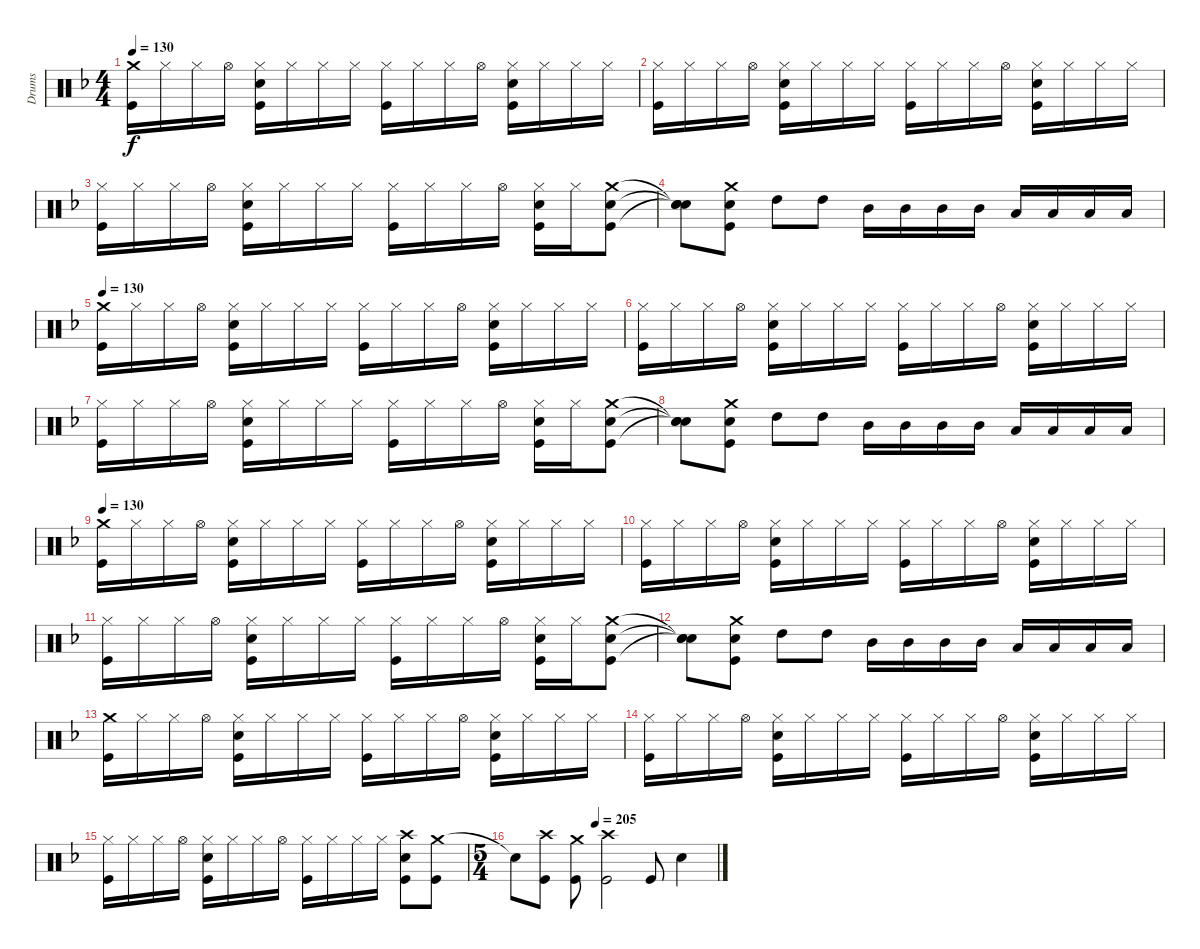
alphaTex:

\track ("Drums" "Drums") {instrument percussion}
\staff {score}
\articulation defaults
\ts (4 4)
\tempo 130
\clef neutral
\ks f
("Crash medium (hit)" "Kick (hit)").16{dy f} "Hi-Hat (closed)".16 "Hi-Hat (closed)".16 "Hi-Hat (open)".16 ("Hi-Hat (closed)" "Kick (hit)" "Electric Snare (hit)").16 "Hi-Hat (closed)".16 "Hi-Hat (closed)".16 "Hi-Hat (closed)".16 ("Hi-Hat (closed)" "Kick (hit)").16 "Hi-Hat (closed)".16 "Hi-Hat (closed)".16 "Hi-Hat (open)".16 ("Hi-Hat (closed)" "Kick (hit)" "Electric Snare (hit)").16 "Hi-Hat (closed)".16 "Hi-Hat (closed)".16 "Hi-Hat (closed)".16 |
("Hi-Hat (closed)" "Kick (hit)").16 "Hi-Hat (closed)".16 "Hi-Hat (closed)".16 "Hi-Hat (open)".16 ("Hi-Hat (closed)" "Kick (hit)" "Electric Snare (hit)").16 "Hi-Hat (closed)".16 "Hi-Hat (closed)".16 "Hi-Hat (closed)".16 ("Hi-Hat (closed)" "Kick (hit)").16 "Hi-Hat (closed)".16 "Hi-Hat (closed)".16 "Hi-Hat (open)".16 ("Hi-Hat (closed)" "Kick (hit)" "Electric Snare (hit)").16 "Hi-Hat (closed)".16 "Hi-Hat (closed)".16 "Hi-Hat (closed)".16 |
("Hi-Hat (closed)" "Kick (hit)").16 "Hi-Hat (closed)".16 "Hi-Hat (closed)".16 "Hi-Hat (open)".16 ("Hi-Hat (closed)" "Kick (hit)" "Electric Snare (hit)").16 "Hi-Hat (closed)".16 "Hi-Hat (closed)".16 "Hi-Hat (closed)".16 ("Hi-Hat (closed)" "Kick (hit)").16 "Hi-Hat (closed)".16 "Hi-Hat (closed)".16 "Hi-Hat (open)".16 ("Hi-Hat (closed)" "Kick (hit)" "Electric Snare (hit)").16 "Hi-Hat (closed)".16 ("Crash medium (hit)" "Kick (hit)" "Electric Snare (hit)").8 |
("Snare (hit)"{t} "Snare (hit)"{t} "Snare (hit)"{t}).8 ("Crash medium (hit)" "Kick (hit)" "Electric Snare (hit)").8 "High Tom (hit)".8 "High Tom (hit)".8 "Mid Tom (hit)".16 "Mid Tom (hit)".16 "Mid Tom (hit)".16 "Mid Tom (hit)".16 "Low Tom (hit)".16 "Low Tom (hit)".16 "Low Tom (hit)".16 "Low Tom (hit)".16 |
\tempo 130
("Crash medium (hit)" "Kick (hit)").16 "Hi-Hat (closed)".16 "Hi-Hat (closed)".16 "Hi-Hat (open)".16 ("Hi-Hat (closed)" "Kick (hit)" "Electric Snare (hit)").16 "Hi-Hat (closed)".16 "Hi-Hat (closed)".16 "Hi-Hat (closed)".16 ("Hi-Hat (closed)" "Kick (hit)").16 "Hi-Hat (closed)".16 "Hi-Hat (closed)".16 "Hi-Hat (open)".16 ("Hi-Hat (closed)" "Kick (hit)" "Electric Snare (hit)").16 "Hi-Hat (closed)".16 "Hi-Hat (closed)".16 "Hi-Hat (closed)".16 |
("Hi-Hat (closed)" "Kick (hit)").16 "Hi-Hat (closed)".16 "Hi-Hat (closed)".16 "Hi-Hat (open)".16 ("Hi-Hat (closed)" "Kick (hit)" "Electric Snare (hit)").16 "Hi-Hat (closed)".16 "Hi-Hat (closed)".16 "Hi-Hat (closed)".16 ("Hi-Hat (closed)" "Kick (hit)").16 "Hi-Hat (closed)".16 "Hi-Hat (closed)".16 "Hi-Hat (open)".16 ("Hi-Hat (closed)" "Kick (hit)" "Electric Snare (hit)").16 "Hi-Hat (closed)".16 "Hi-Hat (closed)".16 "Hi-Hat (closed)".16 |
("Hi-Hat (closed)" "Kick (hit)").16 "Hi-Hat (closed)".16 "Hi-Hat (closed)".16 "Hi-Hat (open)".16 ("Hi-Hat (closed)" "Kick (hit)" "Electric Snare (hit)").16 "Hi-Hat (closed)".16 "Hi-Hat (closed)".16 "Hi-Hat (closed)".16 ("Hi-Hat (closed)" "Kick (hit)").16 "Hi-Hat (closed)".16 "Hi-Hat (closed)".16 "Hi-Hat (open)".16 ("Hi-Hat (closed)" "Kick (hit)" "Electric Snare (hit)").16 "Hi-Hat (closed)".16 ("Crash medium (hit)" "Kick (hit)" "Electric Snare (hit)").8 |
("Snare (hit)"{t} "Snare (hit)"{t} "Snare (hit)"{t}).8 ("Crash medium (hit)" "Kick (hit)" "Electric Snare (hit)").8 "High Tom (hit)".8 "High Tom (hit)".8 "Mid Tom (hit)".16 "Mid Tom (hit)".16 "Mid Tom (hit)".16 "Mid Tom (hit)".16 "Low Tom (hit)".16 "Low Tom (hit)".16 "Low Tom (hit)".16 "Low Tom (hit)".16 |
\tempo 130
("Crash medium (hit)" "Kick (hit)").16 "Hi-Hat (closed)".16 "Hi-Hat (closed)".16 "Hi-Hat (open)".16 ("Hi-Hat (closed)" "Kick (hit)" "Electric Snare (hit)").16 "Hi-Hat (closed)".16 "Hi-Hat (closed)".16 "Hi-Hat (closed)".16 ("Hi-Hat (closed)" "Kick (hit)").16 "Hi-Hat (closed)".16 "Hi-Hat (closed)".16 "Hi-Hat (open)".16 ("Hi-Hat (closed)" "Kick (hit)" "Electric Snare (hit)").16 "Hi-Hat (closed)".16 "Hi-Hat (closed)".16 "Hi-Hat (closed)".16 |
("Hi-Hat (closed)" "Kick (hit)").16 "Hi-Hat (closed)".16 "Hi-Hat (closed)".16 "Hi-Hat (open)".16 ("Hi-Hat (closed)" "Kick (hit)" "Electric Snare (hit)").16 "Hi-Hat (closed)".16 "Hi-Hat (closed)".16 "Hi-Hat (closed)".16 ("Hi-Hat (closed)" "Kick (hit)").16 "Hi-Hat (closed)".16 "Hi-Hat (closed)".16 "Hi-Hat (open)".16 ("Hi-Hat (closed)" "Kick (hit)" "Electric Snare (hit)").16 "Hi-Hat (closed)".16 "Hi-Hat (closed)".16 "Hi-Hat (closed)".16 |
("Hi-Hat (closed)" "Kick (hit)").16 "Hi-Hat (closed)".16 "Hi-Hat (closed)".16 "Hi-Hat (open)".16 ("Hi-Hat (closed)" "Kick (hit)" "Electric Snare (hit)").16 "Hi-Hat (closed)".16 "Hi-Hat (closed)".16 "Hi-Hat (closed)".16 ("Hi-Hat (closed)" "Kick (hit)").16 "Hi-Hat (closed)".16 "Hi-Hat (closed)".16 "Hi-Hat (open)".16 ("Hi-Hat (closed)" "Kick (hit)" "Electric Snare (hit)").16 "Hi-Hat (closed)".16 ("Crash medium (hit)" "Kick (hit)" "Electric Snare (hit)").8 |
("Snare (hit)"{t} "Snare (hit)"{t} "Snare (hit)"{t}).8 ("Crash medium (hit)" "Kick (hit)" "Electric Snare (hit)").8 "High Tom (hit)".8 "High Tom (hit)".8 "Mid Tom (hit)".16 "Mid Tom (hit)".16 "Mid Tom (hit)".16 "Mid Tom (hit)".16 "Low Tom (hit)".16 "Low Tom (hit)".16 "Low Tom (hit)".16 "Low Tom (hit)".16 |
("Crash medium (hit)" "Kick (hit)").16 "Hi-Hat (closed)".16 "Hi-Hat (closed)".16 "Hi-Hat (open)".16 ("Hi-Hat (closed)" "Kick (hit)" "Electric Snare (hit)").16 "Hi-Hat (closed)".16 "Hi-Hat (closed)".16 "Hi-Hat (closed)".16 ("Hi-Hat (closed)" "Kick (hit)").16 "Hi-Hat (closed)".16 "Hi-Hat (closed)".16 "Hi-Hat (open)".16 ("Hi-Hat (closed)" "Kick (hit)" "Electric Snare (hit)").16 "Hi-Hat (closed)".16 "Hi-Hat (closed)".16 "Hi-Hat (closed)".16 |
("Hi-Hat (closed)" "Kick (hit)").16 "Hi-Hat (closed)".16 "Hi-Hat (closed)".16 "Hi-Hat (open)".16 ("Hi-Hat (closed)" "Kick (hit)" "Electric Snare (hit)").16 "Hi-Hat (closed)".16 "Hi-Hat (closed)".16 "Hi-Hat (closed)".16 ("Hi-Hat (closed)" "Kick (hit)").16 "Hi-Hat (closed)".16 "Hi-Hat (closed)".16 "Hi-Hat (open)".16 ("Hi-Hat (closed)" "Kick (hit)" "Electric Snare (hit)").16 "Hi-Hat (closed)".16 "Hi-Hat (closed)".16 "Hi-Hat (closed)".16 |
("Hi-Hat (closed)" "Kick (hit)").16 "Hi-Hat (closed)".16 "Hi-Hat (closed)".16 "Hi-Hat (open)".16 ("Hi-Hat (closed)" "Kick (hit)" "Electric Snare (hit)").16 "Hi-Hat (closed)".16 "Hi-Hat (closed)".16 "Hi-Hat (open)".16 ("Hi-Hat (closed)" "Kick (hit)").16 "Hi-Hat (closed)".16 "Hi-Hat (closed)".16 "Hi-Hat (closed)".16 ("Crash high (hit)" "Kick (hit)" "Electric Snare (hit)").8 ("Crash medium (hit)" "Kick (hit)").8 |
\ts (5 4)
\tempo (205 0.4)
"Snare (hit)"{t}.8 ("Crash high (hit)" "Kick (hit)").8 ("Crash medium (hit)" "Kick (hit)").8 ("Crash high (hit)" "Kick (hit)").2 "Kick (hit)".8 "Electric Snare (hit)".4
